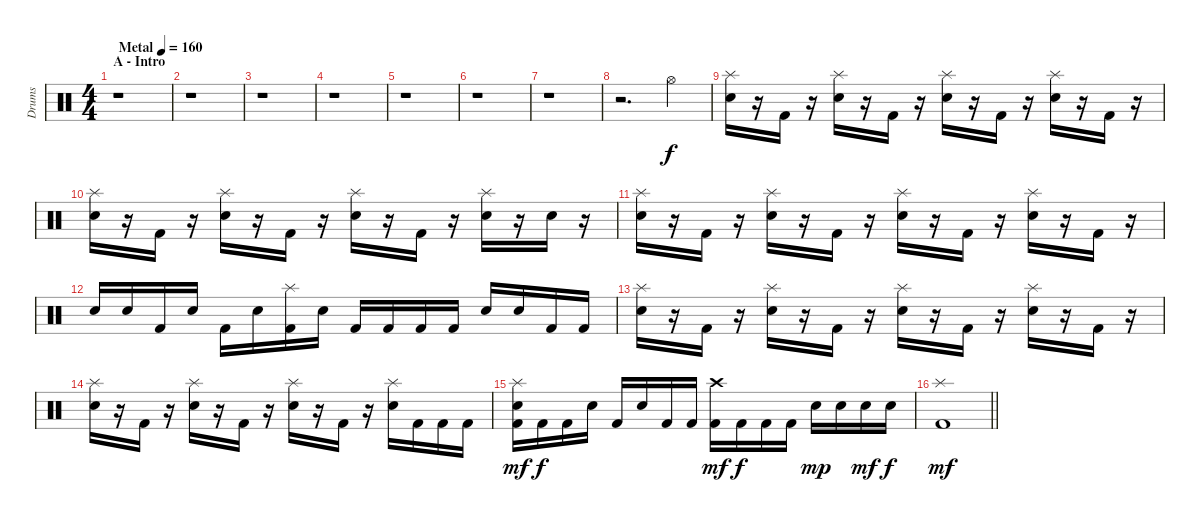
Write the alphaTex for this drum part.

\track ("Drums" "Drums") {instrument percussion}
\staff {score}
\articulation defaults
\ts (4 4)
\section ("" "A - Intro")
\tempo (160 "Metal")
\clef neutral
\ks c
r.1{dy f} |
r.1 |
r.1 |
r.1 |
r.1 |
r.1 |
r.1 |
r.2{d} "Hi-Hat (open)".4 |
("Splash (hit)" "Electric Snare (hit)").16 r.16 "Kick (hit) 2".16 r.16 ("Splash (hit)" "Electric Snare (hit)").16 r.16 "Kick (hit) 2".16 r.16 ("Splash (hit)" "Electric Snare (hit)").16 r.16 "Kick (hit) 2".16 r.16 ("Splash (hit)" "Electric Snare (hit)").16 r.16 "Kick (hit) 2".16 r.16 |
("Splash (hit)" "Electric Snare (hit)").16 r.16 "Kick (hit) 2".16 r.16 ("Splash (hit)" "Electric Snare (hit)").16 r.16 "Kick (hit) 2".16 r.16 ("Splash (hit)" "Electric Snare (hit)").16 r.16 "Kick (hit) 2".16 r.16 ("Splash (hit)" "Electric Snare (hit)").16 r.16 "Electric Snare (hit)".16 r.16 |
("Splash (hit)" "Electric Snare (hit)").16 r.16 "Kick (hit) 2".16 r.16 ("Splash (hit)" "Electric Snare (hit)").16 r.16 "Kick (hit) 2".16 r.16 ("Splash (hit)" "Electric Snare (hit)").16 r.16 "Kick (hit) 2".16 r.16 ("Splash (hit)" "Electric Snare (hit)").16 r.16 "Kick (hit) 2".16 r.16 |
"Electric Snare (hit)".16 "Electric Snare (hit)".16 "Kick (hit) 2".16 "Electric Snare (hit)".16 "Kick (hit) 2".16 "Electric Snare (hit)".16 ("Splash (hit)" "Kick (hit) 2").16 "Electric Snare (hit)".16 "Kick (hit) 2".16 "Kick (hit) 2".16 "Kick (hit) 2".16 "Kick (hit) 2".16 "Electric Snare (hit)".16 "Electric Snare (hit)".16 "Kick (hit) 2".16 "Kick (hit) 2".16 |
("Splash (hit)" "Electric Snare (hit)").16 r.16 "Kick (hit) 2".16 r.16 ("Splash (hit)" "Electric Snare (hit)").16 r.16 "Kick (hit) 2".16 r.16 ("Splash (hit)" "Electric Snare (hit)").16 r.16 "Kick (hit) 2".16 r.16 ("Splash (hit)" "Electric Snare (hit)").16 r.16 "Kick (hit) 2".16 r.16 |
("Splash (hit)" "Electric Snare (hit)").16 r.16 "Kick (hit) 2".16 r.16 ("Splash (hit)" "Electric Snare (hit)").16 r.16 "Kick (hit) 2".16 r.16 ("Splash (hit)" "Electric Snare (hit)").16 r.16 "Kick (hit) 2".16 r.16 ("Splash (hit)" "Electric Snare (hit)").16 "Kick (hit) 2".16 "Kick (hit) 2".16 "Kick (hit) 2".16 |
("Splash (hit)" "Electric Snare (hit)" "Kick (hit) 2").16{dy mf} "Kick (hit) 2".16{dy f} "Kick (hit) 2".16 "Electric Snare (hit)".16 "Kick (hit) 2".16 "Electric Snare (hit)".16 "Kick (hit) 2".16 "Kick (hit) 2".16 ("Crash high (hit)" "Kick (hit) 2").16{dy mf} "Kick (hit) 2".16{dy f} "Kick (hit) 2".16 "Kick (hit) 2".16 "Electric Snare (hit)".16{dy mp} "Electric Snare (hit)".16 "Electric Snare (hit)".16{dy mf} "Electric Snare (hit)".16{dy f} |
\barLineRight lightlight
("Splash (hit)" "Kick (hit) 2").1{dy mf}
